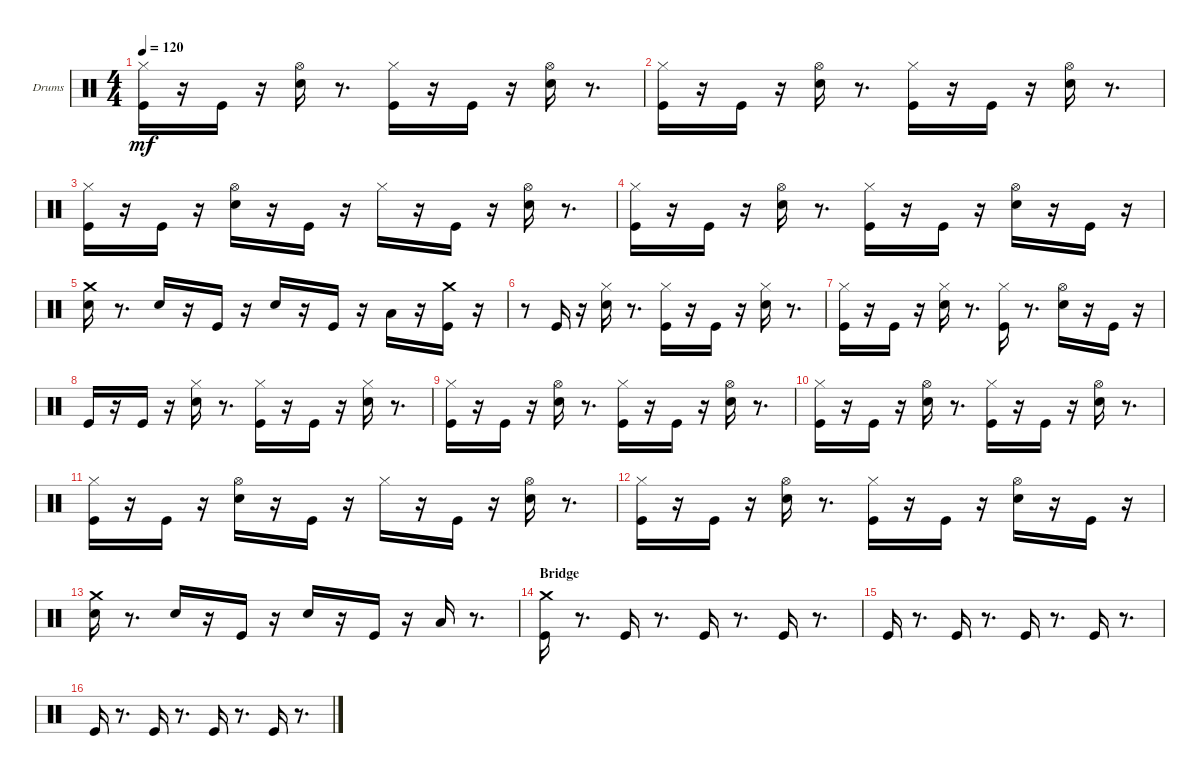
\bracketExtendMode groupsimilarinstruments
\firstSystemTrackNameOrientation horizontal
\otherSystemsTrackNameOrientation horizontal
\track ("Drumkit" "Drums") {instrument percussion}
\staff {score}
\articulation defaults
\ts (4 4)
\tempo 120
\clef neutral
\ks aminor
("Kick (hit)" "Hi-Hat (closed)").16{dy mf} r.16 "Kick (hit)".16 r.16 ("Snare (hit) 2" "Hi-Hat (open)").16 r.8{d} ("Kick (hit)" "Hi-Hat (closed)").16 r.16 "Kick (hit)".16 r.16 ("Snare (hit) 2" "Hi-Hat (open)").16 r.8{d} |
("Kick (hit)" "Hi-Hat (closed)").16 r.16 "Kick (hit)".16 r.16 ("Snare (hit) 2" "Hi-Hat (open)").16 r.8{d} ("Kick (hit)" "Hi-Hat (closed)").16 r.16 "Kick (hit)".16 r.16 ("Snare (hit) 2" "Hi-Hat (open)").16 r.8{d} |
("Kick (hit)" "Hi-Hat (closed)").16 r.16 "Kick (hit)".16 r.16 ("Snare (hit) 2" "Hi-Hat (open)").16 r.16 "Kick (hit)".16 r.16 "Hi-Hat (closed)".16 r.16 "Kick (hit)".16 r.16 ("Snare (hit) 2" "Hi-Hat (open)").16 r.8{d} |
("Kick (hit)" "Hi-Hat (closed)").16 r.16 "Kick (hit)".16 r.16 ("Snare (hit) 2" "Hi-Hat (open)").16 r.8{d} ("Kick (hit)" "Hi-Hat (closed)").16 r.16 "Kick (hit)".16 r.16 ("Snare (hit) 2" "Hi-Hat (open)").16 r.16 "Kick (hit)".16 r.16 |
("Snare (hit) 2" "Crash medium (hit)").16 r.8{d} "Snare (hit) 2".16 r.16 "Kick (hit)".16 r.16 "Snare (hit) 2".16 r.16 "Kick (hit)".16 r.16 "Low Tom (hit)".16 r.16 ("Kick (hit)" "Crash medium (hit)").16 r.16 |
r.8 "Kick (hit)".16 r.16 ("Snare (hit) 2" "Hi-Hat (closed)").16 r.8{d} ("Kick (hit)" "Hi-Hat (closed)").16 r.16 "Kick (hit)".16 r.16 ("Snare (hit) 2" "Hi-Hat (closed)").16 r.8{d} |
("Kick (hit)" "Hi-Hat (closed)").16 r.16 "Kick (hit)".16 r.16 ("Snare (hit) 2" "Hi-Hat (closed)").16 r.8{d} ("Kick (hit)" "Hi-Hat (closed)").16 r.8{d} ("Snare (hit) 2" "Hi-Hat (open)").16 r.16 "Kick (hit)".16 r.16 |
"Kick (hit)".16 r.16 "Kick (hit)".16 r.16 ("Snare (hit) 2" "Hi-Hat (closed)").16 r.8{d} ("Kick (hit)" "Hi-Hat (closed)").16 r.16 "Kick (hit)".16 r.16 ("Snare (hit) 2" "Hi-Hat (closed)").16 r.8{d} |
("Kick (hit)" "Hi-Hat (closed)").16 r.16 "Kick (hit)".16 r.16 ("Snare (hit) 2" "Hi-Hat (open)").16 r.8{d} ("Kick (hit)" "Hi-Hat (closed)").16 r.16 "Kick (hit)".16 r.16 ("Snare (hit) 2" "Hi-Hat (open)").16 r.8{d} |
("Kick (hit)" "Hi-Hat (closed)").16 r.16 "Kick (hit)".16 r.16 ("Snare (hit) 2" "Hi-Hat (open)").16 r.8{d} ("Kick (hit)" "Hi-Hat (closed)").16 r.16 "Kick (hit)".16 r.16 ("Snare (hit) 2" "Hi-Hat (open)").16 r.8{d} |
("Kick (hit)" "Hi-Hat (closed)").16 r.16 "Kick (hit)".16 r.16 ("Snare (hit) 2" "Hi-Hat (open)").16 r.16 "Kick (hit)".16 r.16 "Hi-Hat (closed)".16 r.16 "Kick (hit)".16 r.16 ("Snare (hit) 2" "Hi-Hat (open)").16 r.8{d} |
("Kick (hit)" "Hi-Hat (closed)").16 r.16 "Kick (hit)".16 r.16 ("Snare (hit) 2" "Hi-Hat (open)").16 r.8{d} ("Kick (hit)" "Hi-Hat (closed)").16 r.16 "Kick (hit)".16 r.16 ("Snare (hit) 2" "Hi-Hat (open)").16 r.16 "Kick (hit)".16 r.16 |
("Snare (hit) 2" "Crash medium (hit)").16 r.8{d} "Snare (hit) 2".16 r.16 "Kick (hit)".16 r.16 "Snare (hit) 2".16 r.16 "Kick (hit)".16 r.16 "Low Tom (hit)".16 r.8{d} |
\section ("" "Bridge")
("Kick (hit)" "Crash medium (hit)").16 r.8{d} "Kick (hit)".16 r.8{d} "Kick (hit)".16 r.8{d} "Kick (hit)".16 r.8{d} |
"Kick (hit)".16 r.8{d} "Kick (hit)".16 r.8{d} "Kick (hit)".16 r.8{d} "Kick (hit)".16 r.8{d} |
"Kick (hit)".16 r.8{d} "Kick (hit)".16 r.8{d} "Kick (hit)".16 r.8{d} "Kick (hit)".16 r.8{d}
